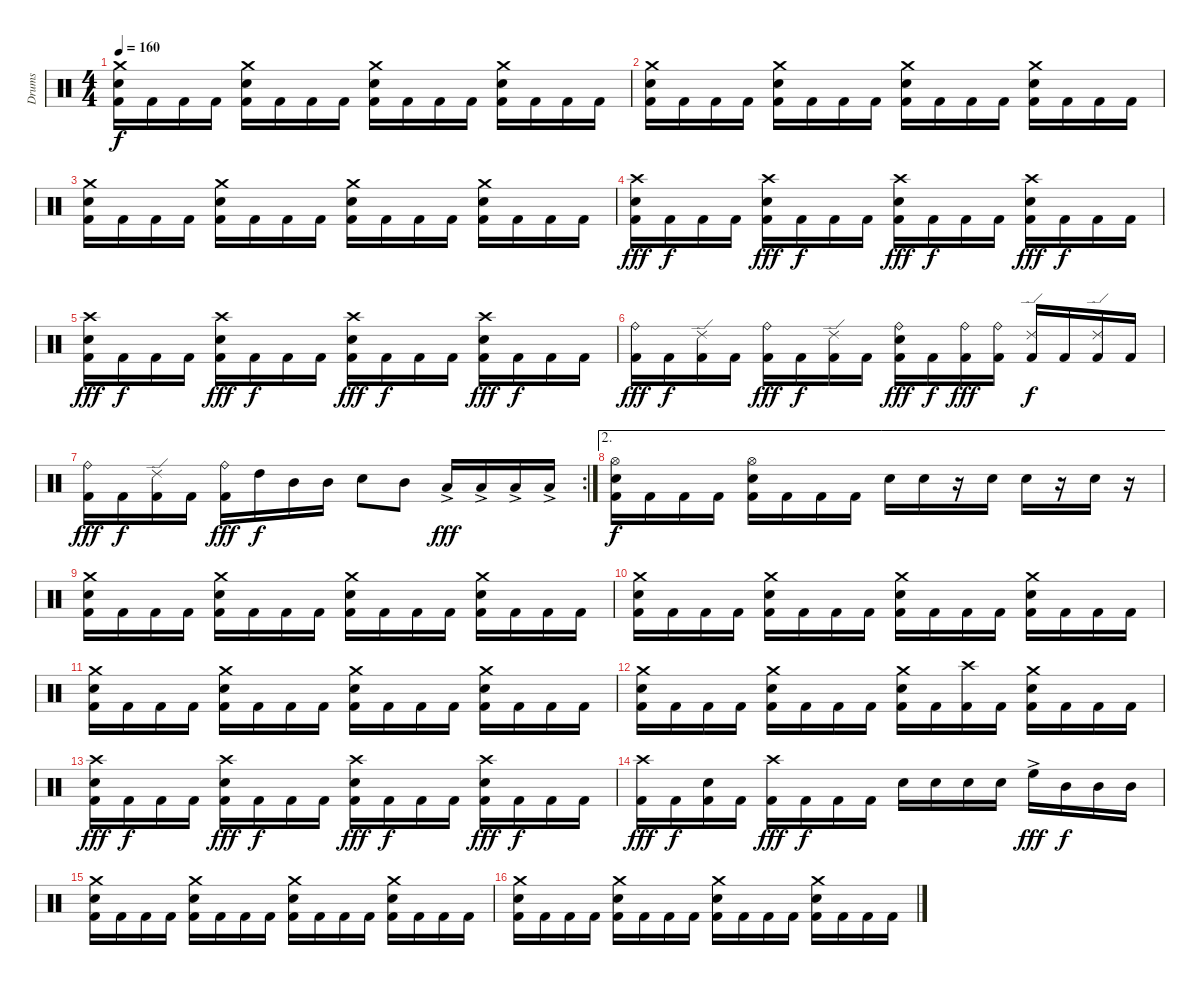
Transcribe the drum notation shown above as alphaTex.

\track ("Drums" "Drums") {instrument percussion}
\staff {score}
\articulation defaults
\ts (4 4)
\tempo 160
\clef neutral
\ks c
("Crash medium (hit)" "Snare (hit) 2" "Kick (hit) 2").16{dy f} "Kick (hit) 2".16 "Kick (hit) 2".16 "Kick (hit) 2".16 ("Crash medium (hit)" "Snare (hit) 2" "Kick (hit) 2").16 "Kick (hit) 2".16 "Kick (hit) 2".16 "Kick (hit) 2".16 ("Crash medium (hit)" "Snare (hit) 2" "Kick (hit) 2").16 "Kick (hit) 2".16 "Kick (hit) 2".16 "Kick (hit) 2".16 ("Crash medium (hit)" "Snare (hit) 2" "Kick (hit) 2").16 "Kick (hit) 2".16 "Kick (hit) 2".16 "Kick (hit) 2".16 |
("Crash medium (hit)" "Snare (hit) 2" "Kick (hit) 2").16 "Kick (hit) 2".16 "Kick (hit) 2".16 "Kick (hit) 2".16 ("Crash medium (hit)" "Snare (hit) 2" "Kick (hit) 2").16 "Kick (hit) 2".16 "Kick (hit) 2".16 "Kick (hit) 2".16 ("Crash medium (hit)" "Snare (hit) 2" "Kick (hit) 2").16 "Kick (hit) 2".16 "Kick (hit) 2".16 "Kick (hit) 2".16 ("Crash medium (hit)" "Snare (hit) 2" "Kick (hit) 2").16 "Kick (hit) 2".16 "Kick (hit) 2".16 "Kick (hit) 2".16 |
("Crash medium (hit)" "Snare (hit) 2" "Kick (hit) 2").16 "Kick (hit) 2".16 "Kick (hit) 2".16 "Kick (hit) 2".16 ("Crash medium (hit)" "Snare (hit) 2" "Kick (hit) 2").16 "Kick (hit) 2".16 "Kick (hit) 2".16 "Kick (hit) 2".16 ("Crash medium (hit)" "Snare (hit) 2" "Kick (hit) 2").16 "Kick (hit) 2".16 "Kick (hit) 2".16 "Kick (hit) 2".16 ("Crash medium (hit)" "Snare (hit) 2" "Kick (hit) 2").16 "Kick (hit) 2".16 "Kick (hit) 2".16 "Kick (hit) 2".16 |
("Crash high (hit)" "Snare (hit) 2" "Kick (hit) 2").16{dy fff} "Kick (hit) 2".16{dy f} "Kick (hit) 2".16 "Kick (hit) 2".16 ("Crash high (hit)" "Snare (hit) 2" "Kick (hit) 2").16{dy fff} "Kick (hit) 2".16{dy f} "Kick (hit) 2".16 "Kick (hit) 2".16 ("Crash high (hit)" "Snare (hit) 2" "Kick (hit) 2").16{dy fff} "Kick (hit) 2".16{dy f} "Kick (hit) 2".16 "Kick (hit) 2".16 ("Crash high (hit)" "Snare (hit) 2" "Kick (hit) 2").16{dy fff} "Kick (hit) 2".16{dy f} "Kick (hit) 2".16 "Kick (hit) 2".16 |
("Crash high (hit)" "Snare (hit) 2" "Kick (hit) 2").16{dy fff} "Kick (hit) 2".16{dy f} "Kick (hit) 2".16 "Kick (hit) 2".16 ("Crash high (hit)" "Snare (hit) 2" "Kick (hit) 2").16{dy fff} "Kick (hit) 2".16{dy f} "Kick (hit) 2".16 "Kick (hit) 2".16 ("Crash high (hit)" "Snare (hit) 2" "Kick (hit) 2").16{dy fff} "Kick (hit) 2".16{dy f} "Kick (hit) 2".16 "Kick (hit) 2".16 ("Crash high (hit)" "Snare (hit) 2" "Kick (hit) 2").16{dy fff} "Kick (hit) 2".16{dy f} "Kick (hit) 2".16 "Kick (hit) 2".16 |
("Ride (bell)" "Kick (hit) 2").16{dy fff} "Kick (hit) 2".16{dy f} ("Ride (edge) 2" "Kick (hit) 2").16 "Kick (hit) 2".16 ("Ride (bell)" "Kick (hit) 2").16{dy fff} "Kick (hit) 2".16{dy f} ("Ride (edge) 2" "Kick (hit) 2").16 "Kick (hit) 2".16 ("Ride (bell)" "Snare (hit) 2" "Kick (hit) 2").16{dy fff} "Kick (hit) 2".16{dy f} ("Ride (bell)" "Kick (hit) 2").16{dy fff} ("Ride (bell)" "Kick (hit) 2").16 ("Ride (edge) 2" "Kick (hit) 2").16{dy f} "Kick (hit) 2".16 ("Ride (edge) 2" "Kick (hit) 2").16 "Kick (hit) 2".16 |
\rc 2
("Ride (bell)" "Kick (hit) 2").16{dy fff} "Kick (hit) 2".16{dy f} ("Ride (edge) 2" "Kick (hit) 2").16 "Kick (hit) 2".16 ("Ride (bell)" "Kick (hit) 2").16{dy fff} "High Tom (hit)".16{dy f} "Mid Tom (hit)".16 "Mid Tom (hit)".16 "Snare (hit) 2".8 "Mid Tom (hit)".8 "Low Tom (hit)"{ac}.16{dy fff} "Low Tom (hit)"{ac}.16 "Low Tom (hit)"{ac}.16 "Low Tom (hit)"{ac}.16 |
\ae 2
("Hi-Hat (open)" "Snare (hit) 2" "Kick (hit) 2").16{dy f} "Kick (hit) 2".16 "Kick (hit) 2".16 "Kick (hit) 2".16 ("Hi-Hat (open)" "Snare (hit) 2" "Kick (hit) 2").16 "Kick (hit) 2".16 "Kick (hit) 2".16 "Kick (hit) 2".16 "Snare (hit) 2".16 "Snare (hit) 2".16 r.16 "Snare (hit) 2".16 "Snare (hit) 2".16 r.16 "Snare (hit) 2".16 r.16 |
("Crash medium (hit)" "Snare (hit) 2" "Kick (hit) 2").16 "Kick (hit) 2".16 "Kick (hit) 2".16 "Kick (hit) 2".16 ("Crash medium (hit)" "Snare (hit) 2" "Kick (hit) 2").16 "Kick (hit) 2".16 "Kick (hit) 2".16 "Kick (hit) 2".16 ("Crash medium (hit)" "Snare (hit) 2" "Kick (hit) 2").16 "Kick (hit) 2".16 "Kick (hit) 2".16 "Kick (hit) 2".16 ("Crash medium (hit)" "Snare (hit) 2" "Kick (hit) 2").16 "Kick (hit) 2".16 "Kick (hit) 2".16 "Kick (hit) 2".16 |
("Crash medium (hit)" "Snare (hit) 2" "Kick (hit) 2").16 "Kick (hit) 2".16 "Kick (hit) 2".16 "Kick (hit) 2".16 ("Crash medium (hit)" "Snare (hit) 2" "Kick (hit) 2").16 "Kick (hit) 2".16 "Kick (hit) 2".16 "Kick (hit) 2".16 ("Crash medium (hit)" "Snare (hit) 2" "Kick (hit) 2").16 "Kick (hit) 2".16 "Kick (hit) 2".16 "Kick (hit) 2".16 ("Crash medium (hit)" "Snare (hit) 2" "Kick (hit) 2").16 "Kick (hit) 2".16 "Kick (hit) 2".16 "Kick (hit) 2".16 |
("Crash medium (hit)" "Snare (hit) 2" "Kick (hit) 2").16 "Kick (hit) 2".16 "Kick (hit) 2".16 "Kick (hit) 2".16 ("Crash medium (hit)" "Snare (hit) 2" "Kick (hit) 2").16 "Kick (hit) 2".16 "Kick (hit) 2".16 "Kick (hit) 2".16 ("Crash medium (hit)" "Snare (hit) 2" "Kick (hit) 2").16 "Kick (hit) 2".16 "Kick (hit) 2".16 "Kick (hit) 2".16 ("Crash medium (hit)" "Snare (hit) 2" "Kick (hit) 2").16 "Kick (hit) 2".16 "Kick (hit) 2".16 "Kick (hit) 2".16 |
("Crash medium (hit)" "Snare (hit) 2" "Kick (hit) 2").16 "Kick (hit) 2".16 "Kick (hit) 2".16 "Kick (hit) 2".16 ("Crash medium (hit)" "Snare (hit) 2" "Kick (hit) 2").16 "Kick (hit) 2".16 "Kick (hit) 2".16 "Kick (hit) 2".16 ("Crash medium (hit)" "Snare (hit) 2" "Kick (hit) 2").16 "Kick (hit) 2".16 ("Crash high (hit)" "Kick (hit) 2").16 "Kick (hit) 2".16 ("Crash medium (hit)" "Snare (hit) 2" "Kick (hit) 2").16 "Kick (hit) 2".16 "Kick (hit) 2".16 "Kick (hit) 2".16 |
("Crash high (hit)" "Snare (hit) 2" "Kick (hit) 2").16{dy fff} "Kick (hit) 2".16{dy f} "Kick (hit) 2".16 "Kick (hit) 2".16 ("Crash high (hit)" "Snare (hit) 2" "Kick (hit) 2").16{dy fff} "Kick (hit) 2".16{dy f} "Kick (hit) 2".16 "Kick (hit) 2".16 ("Crash high (hit)" "Snare (hit) 2" "Kick (hit) 2").16{dy fff} "Kick (hit) 2".16{dy f} "Kick (hit) 2".16 "Kick (hit) 2".16 ("Crash high (hit)" "Snare (hit) 2" "Kick (hit) 2").16{dy fff} "Kick (hit) 2".16{dy f} "Kick (hit) 2".16 "Kick (hit) 2".16 |
("Crash high (hit)" "Kick (hit) 2").16{dy fff} "Kick (hit) 2".16{dy f} ("Snare (hit) 2" "Kick (hit) 2").16 "Kick (hit) 2".16 ("Crash high (hit)" "Kick (hit) 2").16{dy fff} "Kick (hit) 2".16{dy f} "Kick (hit) 2".16 "Kick (hit) 2".16 "Snare (hit) 2".16 "Snare (hit) 2".16 "Snare (hit) 2".16 "Snare (hit) 2".16 "High Floor Tom (hit)"{ac}.16{dy fff} "Mid Tom (hit)".16{dy f} "Mid Tom (hit)".16 "Mid Tom (hit)".16 |
("Crash medium (hit)" "Snare (hit) 2" "Kick (hit) 2").16 "Kick (hit) 2".16 "Kick (hit) 2".16 "Kick (hit) 2".16 ("Crash medium (hit)" "Snare (hit) 2" "Kick (hit) 2").16 "Kick (hit) 2".16 "Kick (hit) 2".16 "Kick (hit) 2".16 ("Crash medium (hit)" "Snare (hit) 2" "Kick (hit) 2").16 "Kick (hit) 2".16 "Kick (hit) 2".16 "Kick (hit) 2".16 ("Crash medium (hit)" "Snare (hit) 2" "Kick (hit) 2").16 "Kick (hit) 2".16 "Kick (hit) 2".16 "Kick (hit) 2".16 |
("Crash medium (hit)" "Snare (hit) 2" "Kick (hit) 2").16 "Kick (hit) 2".16 "Kick (hit) 2".16 "Kick (hit) 2".16 ("Crash medium (hit)" "Snare (hit) 2" "Kick (hit) 2").16 "Kick (hit) 2".16 "Kick (hit) 2".16 "Kick (hit) 2".16 ("Crash medium (hit)" "Snare (hit) 2" "Kick (hit) 2").16 "Kick (hit) 2".16 "Kick (hit) 2".16 "Kick (hit) 2".16 ("Crash medium (hit)" "Snare (hit) 2" "Kick (hit) 2").16 "Kick (hit) 2".16 "Kick (hit) 2".16 "Kick (hit) 2".16
